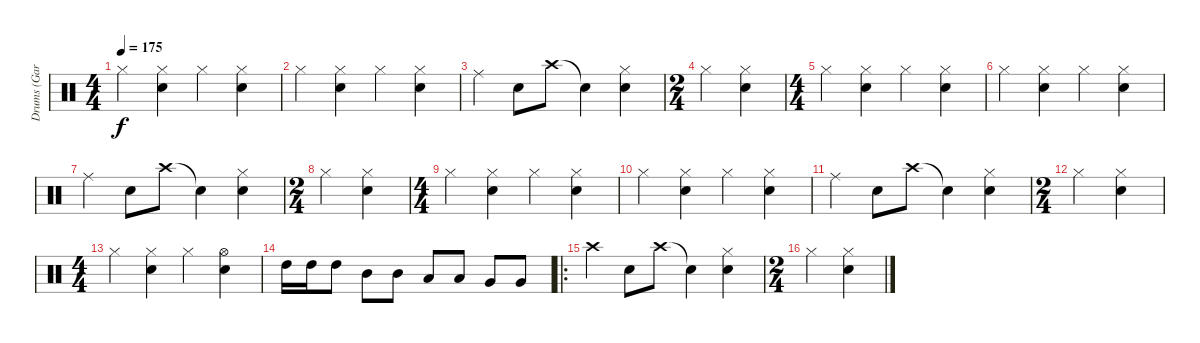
\track ("Drums (Gar Samuelson)" "Drums (Gar") {instrument percussion}
\staff {score}
\articulation defaults
\ts (4 4)
\tempo 175
\clef neutral
\ks c "Hi-Hat (closed)".4{dy f}
("Hi-Hat (closed)" "Snare (hit) 2").4 "Hi-Hat (closed)".4 ("Hi-Hat (closed)" "Snare (hit) 2").4 |
"Hi-Hat (closed)".4 ("Hi-Hat (closed)" "Snare (hit) 2").4 "Hi-Hat (closed)".4 ("Hi-Hat (closed)" "Snare (hit) 2").4 |
"Ride (middle)".4 "Snare (hit) 2".8 "Crash high (hit)".8 "Snare (hit)"{t}.4 ("Hi-Hat (closed)" "Snare (hit) 2").4 |
\ts (2 4)
"Hi-Hat (closed)".4 ("Hi-Hat (closed)" "Snare (hit) 2").4 |
\ts (4 4)
"Hi-Hat (closed)".4 ("Hi-Hat (closed)" "Snare (hit) 2").4 "Hi-Hat (closed)".4 ("Hi-Hat (closed)" "Snare (hit) 2").4 |
"Hi-Hat (closed)".4 ("Hi-Hat (closed)" "Snare (hit) 2").4 "Hi-Hat (closed)".4 ("Hi-Hat (closed)" "Snare (hit) 2").4 |
"Ride (middle)".4 "Snare (hit) 2".8 "Crash high (hit)".8 "Snare (hit)"{t}.4 ("Hi-Hat (closed)" "Snare (hit) 2").4 |
\ts (2 4)
"Hi-Hat (closed)".4 ("Hi-Hat (closed)" "Snare (hit) 2").4 |
\ts (4 4)
"Hi-Hat (closed)".4 ("Hi-Hat (closed)" "Snare (hit) 2").4 "Hi-Hat (closed)".4 ("Hi-Hat (closed)" "Snare (hit) 2").4 |
"Hi-Hat (closed)".4 ("Hi-Hat (closed)" "Snare (hit) 2").4 "Hi-Hat (closed)".4 ("Hi-Hat (closed)" "Snare (hit) 2").4 |
"Ride (middle)".4 "Snare (hit) 2".8 "Crash high (hit)".8 "Snare (hit)"{t}.4 ("Hi-Hat (closed)" "Snare (hit) 2").4 |
\ts (2 4)
"Hi-Hat (closed)".4 ("Hi-Hat (closed)" "Snare (hit) 2").4 |
\ts (4 4)
"Hi-Hat (closed)".4 ("Hi-Hat (closed)" "Snare (hit) 2").4 "Hi-Hat (closed)".4 ("Hi-Hat (open)" "Snare (hit) 2").4 |
"High Tom (hit)".16 "High Tom (hit)".16 "High Tom (hit)".8 "Mid Tom (hit)".8 "Mid Tom (hit)".8 "Low Tom (hit)".8 "Low Tom (hit)".8 "Very Low Tom (hit)".8 "Very Low Tom (hit)".8 |
\ro "Crash high (hit)".4 "Snare (hit) 2".8 "Crash high (hit)".8 "Snare (hit)"{t}.4
("Hi-Hat (closed)" "Snare (hit) 2").4 |
\ts (2 4)
"Hi-Hat (closed)".4 ("Hi-Hat (closed)" "Snare (hit) 2").4
